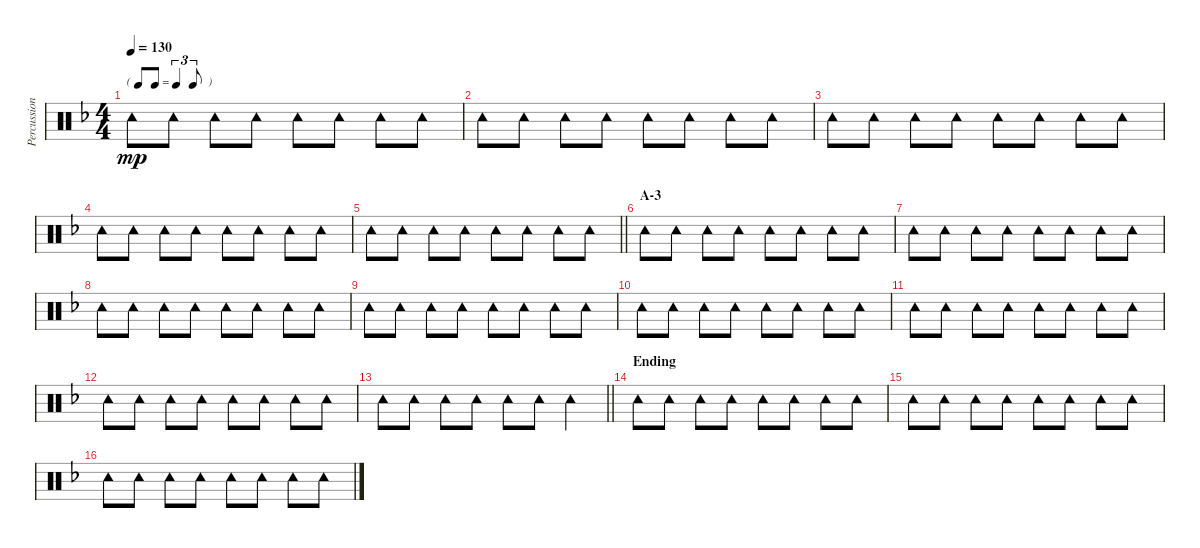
\track ("Percussion II (Tainaka Ritsu)" "Percussion") {instrument percussion}
\staff {score}
\articulation defaults
\ts (4 4)
\tf triplet8th
\tempo 130
\clef neutral
\ks f "Tambourine (hit)".8{dy mp} "Tambourine (hit)".8 "Tambourine (hit)".8 "Tambourine (hit)".8 "Tambourine (hit)".8 "Tambourine (hit)".8 "Tambourine (hit)".8 "Tambourine (hit)".8
|
"Tambourine (hit)".8 "Tambourine (hit)".8 "Tambourine (hit)".8 "Tambourine (hit)".8 "Tambourine (hit)".8 "Tambourine (hit)".8 "Tambourine (hit)".8 "Tambourine (hit)".8 |
"Tambourine (hit)".8 "Tambourine (hit)".8 "Tambourine (hit)".8 "Tambourine (hit)".8 "Tambourine (hit)".8 "Tambourine (hit)".8 "Tambourine (hit)".8 "Tambourine (hit)".8 |
"Tambourine (hit)".8 "Tambourine (hit)".8 "Tambourine (hit)".8 "Tambourine (hit)".8 "Tambourine (hit)".8 "Tambourine (hit)".8 "Tambourine (hit)".8 "Tambourine (hit)".8 |
\barLineRight lightlight "Tambourine (hit)".8 "Tambourine (hit)".8 "Tambourine (hit)".8 "Tambourine (hit)".8 "Tambourine (hit)".8 "Tambourine (hit)".8 "Tambourine (hit)".8 "Tambourine (hit)".8
|
\section ("" "A-3")
"Tambourine (hit)".8 "Tambourine (hit)".8 "Tambourine (hit)".8 "Tambourine (hit)".8 "Tambourine (hit)".8 "Tambourine (hit)".8 "Tambourine (hit)".8 "Tambourine (hit)".8 |
"Tambourine (hit)".8 "Tambourine (hit)".8 "Tambourine (hit)".8 "Tambourine (hit)".8 "Tambourine (hit)".8 "Tambourine (hit)".8 "Tambourine (hit)".8 "Tambourine (hit)".8 |
"Tambourine (hit)".8 "Tambourine (hit)".8 "Tambourine (hit)".8 "Tambourine (hit)".8 "Tambourine (hit)".8 "Tambourine (hit)".8 "Tambourine (hit)".8 "Tambourine (hit)".8 |
"Tambourine (hit)".8 "Tambourine (hit)".8 "Tambourine (hit)".8 "Tambourine (hit)".8 "Tambourine (hit)".8 "Tambourine (hit)".8 "Tambourine (hit)".8 "Tambourine (hit)".8 |
"Tambourine (hit)".8 "Tambourine (hit)".8 "Tambourine (hit)".8 "Tambourine (hit)".8 "Tambourine (hit)".8 "Tambourine (hit)".8 "Tambourine (hit)".8 "Tambourine (hit)".8 |
"Tambourine (hit)".8 "Tambourine (hit)".8 "Tambourine (hit)".8 "Tambourine (hit)".8 "Tambourine (hit)".8 "Tambourine (hit)".8 "Tambourine (hit)".8 "Tambourine (hit)".8 |
"Tambourine (hit)".8 "Tambourine (hit)".8 "Tambourine (hit)".8 "Tambourine (hit)".8 "Tambourine (hit)".8 "Tambourine (hit)".8 "Tambourine (hit)".8 "Tambourine (hit)".8 |
\barLineRight lightlight "Tambourine (hit)".8 "Tambourine (hit)".8 "Tambourine (hit)".8 "Tambourine (hit)".8 "Tambourine (hit)".8 "Tambourine (hit)".8 "Tambourine (hit)".4
|
\section ("" "Ending")
"Tambourine (hit)".8 "Tambourine (hit)".8 "Tambourine (hit)".8 "Tambourine (hit)".8 "Tambourine (hit)".8 "Tambourine (hit)".8 "Tambourine (hit)".8 "Tambourine (hit)".8 |
"Tambourine (hit)".8 "Tambourine (hit)".8 "Tambourine (hit)".8 "Tambourine (hit)".8 "Tambourine (hit)".8 "Tambourine (hit)".8 "Tambourine (hit)".8 "Tambourine (hit)".8 |
"Tambourine (hit)".8 "Tambourine (hit)".8 "Tambourine (hit)".8 "Tambourine (hit)".8 "Tambourine (hit)".8 "Tambourine (hit)".8 "Tambourine (hit)".8 "Tambourine (hit)".8
